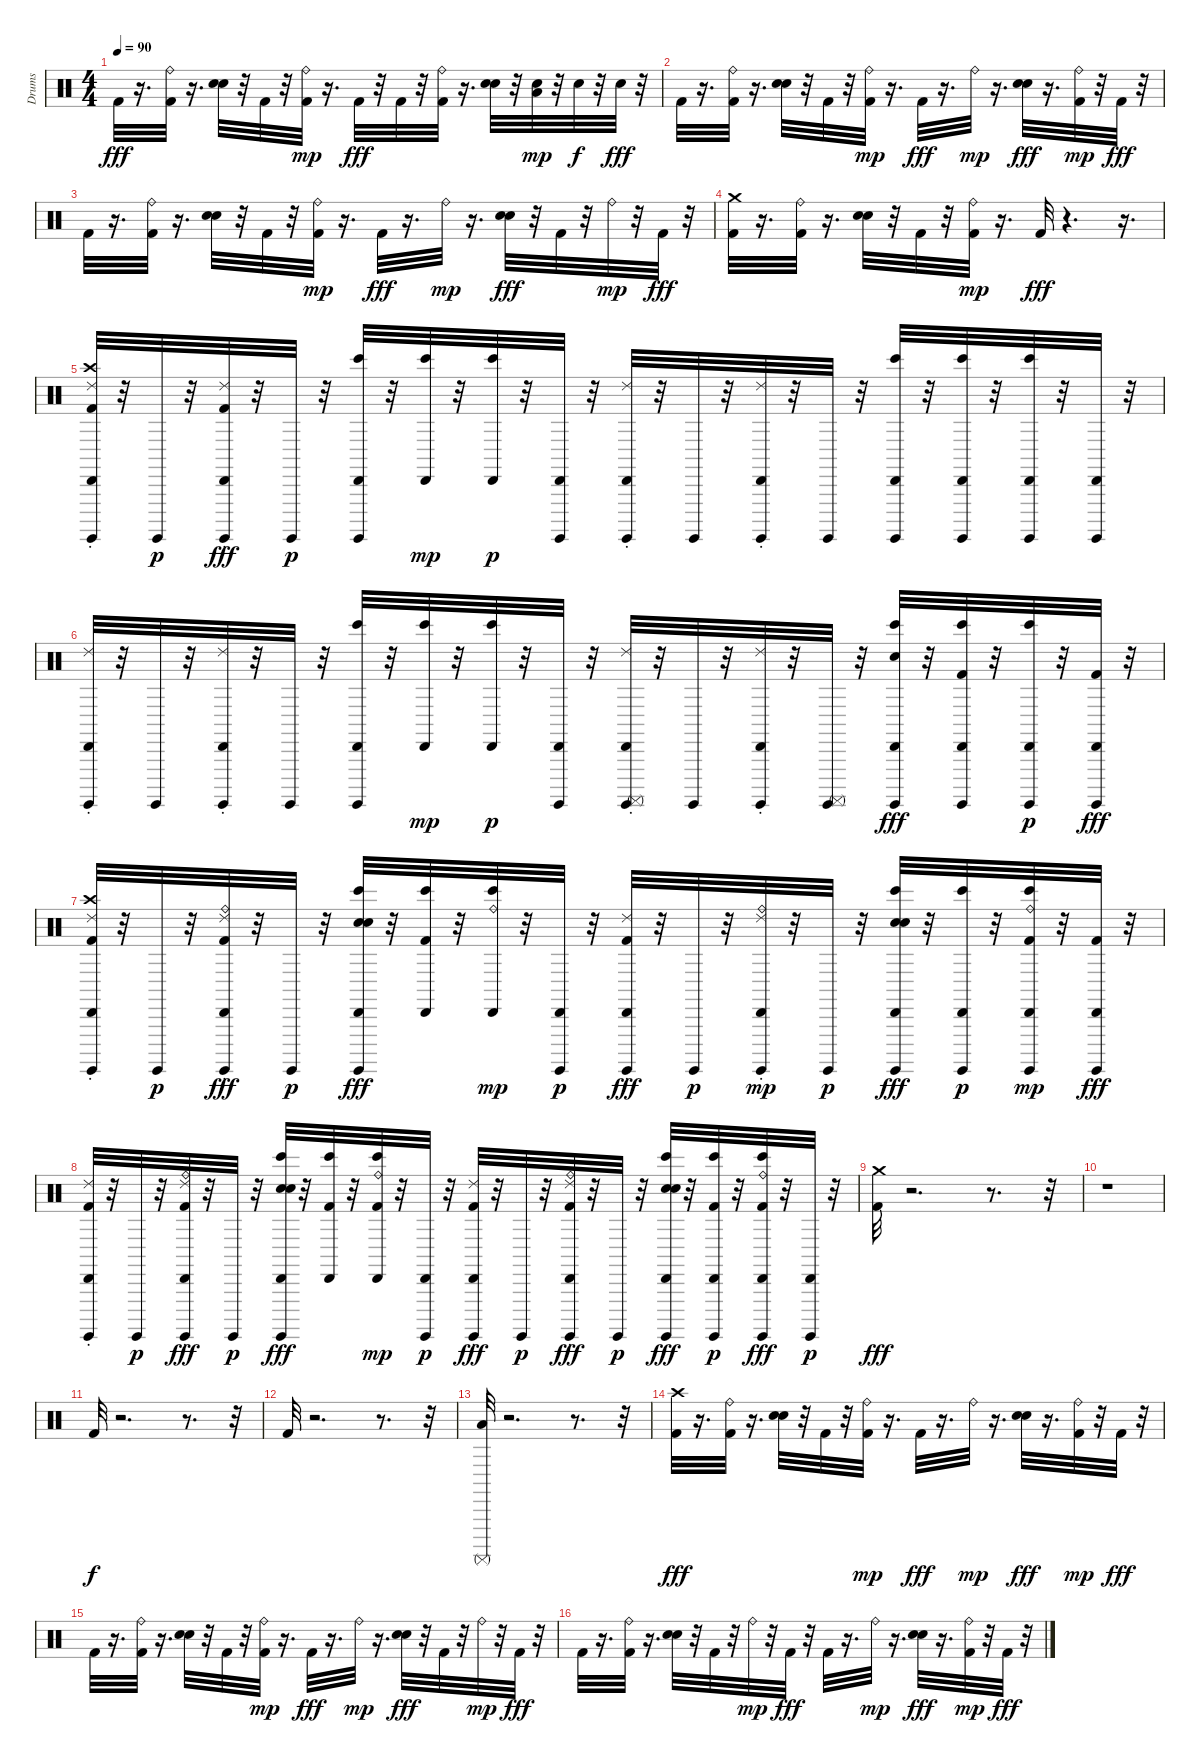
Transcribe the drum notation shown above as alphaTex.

\track ("Drums" "Drums") {instrument percussion}
\staff {score}
\articulation defaults
\ts (4 4)
\tempo 90
\clef neutral
\ks c "Kick (hit) 2".32{dy fff}
r.16{d} ("Ride (bell)" "Kick (hit) 2").32 r.16{d} ("Hand Clap (hit)" "Electric Snare (hit)").32 r.32 "Kick (hit) 2".32 r.32 ("Ride (bell)" "Kick (hit) 2").32{dy mp} r.16{d} "Kick (hit) 2".32{dy fff} r.32 "Kick (hit) 2".32 r.32 ("Ride (bell)" "Kick (hit) 2").32 r.16{d} ("Hand Clap (hit)" "Electric Snare (hit)").32 r.32 ("Low Tom (hit)" "Electric Snare (hit)").32{dy mp} r.32 "Electric Snare (hit)".32{dy f} r.32 "Electric Snare (hit)".32{dy fff} r.32 |
"Kick (hit) 2".32 r.16{d} ("Ride (bell)" "Kick (hit) 2").32 r.16{d} ("Hand Clap (hit)" "Electric Snare (hit)").32 r.32 "Kick (hit) 2".32 r.32 ("Ride (bell)" "Kick (hit) 2").32{dy mp} r.16{d} "Kick (hit) 2".32{dy fff} r.16{d} "Ride (bell)".32{dy mp} r.16{d} ("Hand Clap (hit)" "Electric Snare (hit)").32{dy fff} r.16{d} ("Ride (bell)" "Kick (hit) 2").32{dy mp} r.32 "Kick (hit) 2".32{dy fff} r.32 |
"Kick (hit) 2".32 r.16{d} ("Ride (bell)" "Kick (hit) 2").32 r.16{d} ("Hand Clap (hit)" "Electric Snare (hit)").32 r.32 "Kick (hit) 2".32 r.32 ("Ride (bell)" "Kick (hit) 2").32{dy mp} r.16{d} "Kick (hit) 2".32{dy fff} r.16{d} "Ride (bell)".32{dy mp} r.16{d} ("Hand Clap (hit)" "Electric Snare (hit)").32{dy fff} r.32 "Kick (hit) 2".32 r.32 "Ride (bell)".32{dy mp} r.32 "Kick (hit) 2".32{dy fff} r.32 |
("Crash medium (hit)" "Kick (hit) 2").32 r.16{d} ("Ride (bell)" "Kick (hit) 2").32 r.16{d} ("Hand Clap (hit)" "Electric Snare (hit)").32 r.32 "Kick (hit) 2".32 r.32 ("Ride (bell)" "Kick (hit) 2").32{dy mp} r.16{d} "Kick (hit) 2".32{dy fff} r.4{d} r.16{d} |
("Cabasa (hit)" "Ride (choke) 2" "Surdo (hit)" "Crash high (hit)" "Kick (hit) 2").32 r.32 "Surdo (hit)".32{dy p} r.32 ("Cabasa (hit)" "Ride (choke) 2" "Surdo (hit)" "Kick (hit) 2").32{dy fff} r.32 "Surdo (hit)".32{dy p} r.32 ("Bongo High (hit)" "Cabasa (hit)" "Surdo (hit)").32 r.32 ("Bongo High (hit)" "Cabasa (hit)").32{dy mp} r.32 ("Bongo High (hit)" "Cabasa (hit)").32{dy p} r.32 ("Cabasa (hit)" "Surdo (hit)").32 r.32 ("Cabasa (hit)" "Ride (choke) 2" "Surdo (hit)").32 r.32 "Surdo (hit)".32 r.32 ("Cabasa (hit)" "Ride (choke) 2" "Surdo (hit)").32 r.32 "Surdo (hit)".32 r.32 ("Bongo High (hit)" "Cabasa (hit)" "Surdo (hit)").32 r.32 ("Bongo High (hit)" "Cabasa (hit)" "Surdo (hit)").32 r.32 ("Bongo High (hit)" "Cabasa (hit)" "Surdo (hit)").32 r.32 ("Cabasa (hit)" "Surdo (hit)").32 r.32 |
("Cabasa (hit)" "Ride (choke) 2" "Surdo (hit)").32 r.32 "Surdo (hit)".32 r.32 ("Cabasa (hit)" "Ride (choke) 2" "Surdo (hit)").32 r.32 "Surdo (hit)".32 r.32 ("Bongo High (hit)" "Cabasa (hit)" "Surdo (hit)").32 r.32 ("Bongo High (hit)" "Cabasa (hit)").32{dy mp} r.32 ("Bongo High (hit)" "Cabasa (hit)").32{dy p} r.32 ("Cabasa (hit)" "Surdo (hit)").32 r.32 ("Cabasa (hit)" "Ride (choke) 2" "Surdo (hit)" "Surdo (mute)").32 r.32 "Surdo (hit)".32 r.32 ("Cabasa (hit)" "Ride (choke) 2" "Surdo (hit)").32 r.32 ("Surdo (hit)" "Surdo (mute)").32 r.32 ("Bongo High (hit)" "Cabasa (hit)" "Surdo (hit)" "Electric Snare (hit)").32{dy fff} r.32 ("Bongo High (hit)" "Cabasa (hit)" "Surdo (hit)" "Kick (hit) 2").32 r.32 ("Bongo High (hit)" "Cabasa (hit)" "Surdo (hit)").32{dy p} r.32 ("Cabasa (hit)" "Surdo (hit)" "Kick (hit) 2").32{dy fff} r.32 |
("Cabasa (hit)" "Ride (choke) 2" "Surdo (hit)" "Crash high (hit)" "Kick (hit) 2").32 r.32 "Surdo (hit)".32{dy p} r.32 ("Cabasa (hit)" "Ride (choke) 2" "Surdo (hit)" "Ride (bell)" "Kick (hit) 2").32{dy fff} r.32 "Surdo (hit)".32{dy p} r.32 ("Bongo High (hit)" "Cabasa (hit)" "Surdo (hit)" "Hand Clap (hit)" "Electric Snare (hit)").32{dy fff} r.32 ("Bongo High (hit)" "Cabasa (hit)" "Kick (hit) 2").32 r.32 ("Bongo High (hit)" "Cabasa (hit)" "Ride (bell)").32{dy mp} r.32 ("Cabasa (hit)" "Surdo (hit)").32{dy p} r.32 ("Cabasa (hit)" "Ride (choke) 2" "Surdo (hit)" "Kick (hit) 2").32{dy fff} r.32 "Surdo (hit)".32{dy p} r.32 ("Cabasa (hit)" "Ride (choke) 2" "Surdo (hit)" "Ride (bell)").32{dy mp} r.32 "Surdo (hit)".32{dy p} r.32 ("Bongo High (hit)" "Cabasa (hit)" "Surdo (hit)" "Hand Clap (hit)" "Electric Snare (hit)").32{dy fff} r.32 ("Bongo High (hit)" "Cabasa (hit)" "Surdo (hit)").32{dy p} r.32 ("Bongo High (hit)" "Cabasa (hit)" "Surdo (hit)" "Ride (bell)" "Kick (hit) 2").32{dy mp} r.32 ("Cabasa (hit)" "Surdo (hit)" "Kick (hit) 2").32{dy fff} r.32 |
("Cabasa (hit)" "Ride (choke) 2" "Surdo (hit)" "Kick (hit) 2").32 r.32 "Surdo (hit)".32{dy p} r.32 ("Cabasa (hit)" "Ride (choke) 2" "Surdo (hit)" "Ride (bell)" "Kick (hit) 2").32{dy fff} r.32 "Surdo (hit)".32{dy p} r.32 ("Bongo High (hit)" "Cabasa (hit)" "Surdo (hit)" "Hand Clap (hit)" "Electric Snare (hit)").32{dy fff} r.32 ("Bongo High (hit)" "Cabasa (hit)" "Kick (hit) 2").32 r.32 ("Bongo High (hit)" "Cabasa (hit)" "Ride (bell)" "Kick (hit) 2").32{dy mp} r.32 ("Cabasa (hit)" "Surdo (hit)").32{dy p} r.32 ("Cabasa (hit)" "Ride (choke) 2" "Surdo (hit)" "Kick (hit) 2").32{dy fff} r.32 "Surdo (hit)".32{dy p} r.32 ("Cabasa (hit)" "Ride (choke) 2" "Surdo (hit)" "Ride (bell)" "Kick (hit) 2").32{dy fff} r.32 "Surdo (hit)".32{dy p} r.32 ("Bongo High (hit)" "Cabasa (hit)" "Surdo (hit)" "Hand Clap (hit)" "Electric Snare (hit)").32{dy fff} r.32 ("Bongo High (hit)" "Cabasa (hit)" "Surdo (hit)" "Kick (hit) 2").32{dy p} r.32 ("Bongo High (hit)" "Cabasa (hit)" "Surdo (hit)" "Ride (bell)" "Kick (hit) 2").32{dy fff} r.32 ("Cabasa (hit)" "Surdo (hit)").32{dy p} r.32 |
("Crash medium (hit)" "Kick (hit) 2").32{dy fff} r.2{d} r.8{d} r.32 |
r.1 |
"Kick (hit) 2".32{dy f} r.2{d} r.8{d} r.32 |
"Kick (hit) 2".32 r.2{d} r.8{d} r.32 |
("Low Floor Tom (hit)" "Surdo (mute)").32 r.2{d} r.8{d} r.32 |
("Crash high (hit)" "Kick (hit) 2").32{dy fff} r.16{d} ("Ride (bell)" "Kick (hit) 2").32 r.16{d} ("Hand Clap (hit)" "Electric Snare (hit)").32 r.32 "Kick (hit) 2".32 r.32 ("Ride (bell)" "Kick (hit) 2").32{dy mp} r.16{d} "Kick (hit) 2".32{dy fff} r.16{d} "Ride (bell)".32{dy mp} r.16{d} ("Hand Clap (hit)" "Electric Snare (hit)").32{dy fff} r.16{d} ("Ride (bell)" "Kick (hit) 2").32{dy mp} r.32 "Kick (hit) 2".32{dy fff} r.32 |
"Kick (hit) 2".32 r.16{d} ("Ride (bell)" "Kick (hit) 2").32 r.16{d} ("Hand Clap (hit)" "Electric Snare (hit)").32 r.32 "Kick (hit) 2".32 r.32 ("Ride (bell)" "Kick (hit) 2").32{dy mp} r.16{d} "Kick (hit) 2".32{dy fff} r.16{d} "Ride (bell)".32{dy mp} r.16{d} ("Hand Clap (hit)" "Electric Snare (hit)").32{dy fff} r.32 "Kick (hit) 2".32 r.32 "Ride (bell)".32{dy mp} r.32 "Kick (hit) 2".32{dy fff} r.32 |
"Kick (hit) 2".32 r.16{d} ("Ride (bell)" "Kick (hit) 2").32 r.16{d} ("Hand Clap (hit)" "Electric Snare (hit)").32 r.32 "Kick (hit) 2".32 r.32 "Ride (bell)".32{dy mp} r.32 "Kick (hit) 2".32{dy fff} r.32 "Kick (hit) 2".32 r.16{d} "Ride (bell)".32{dy mp} r.16{d} ("Hand Clap (hit)" "Electric Snare (hit)").32{dy fff} r.16{d} ("Ride (bell)" "Kick (hit) 2").32{dy mp} r.32 "Kick (hit) 2".32{dy fff} r.32
